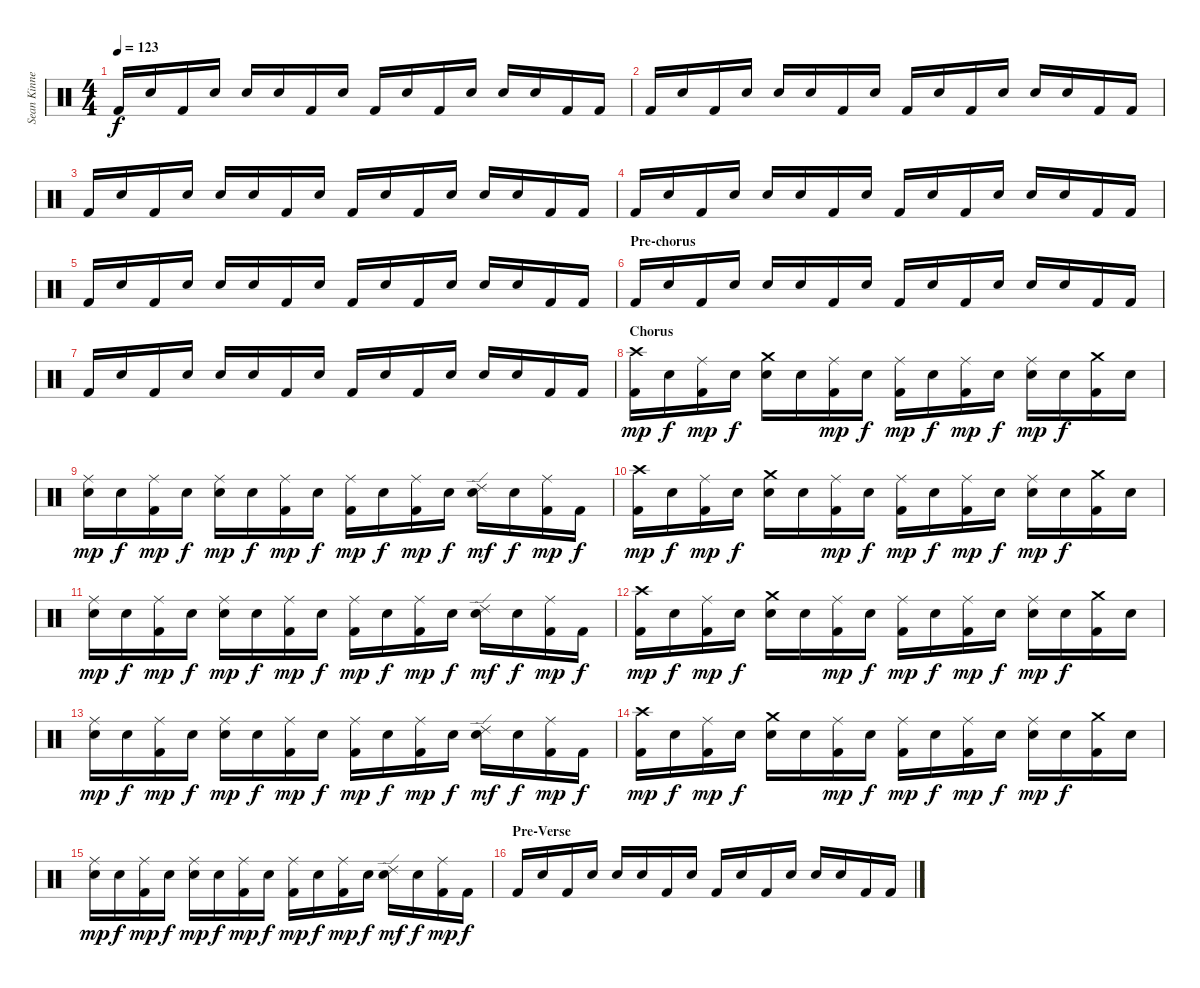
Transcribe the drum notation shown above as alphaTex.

\track ("Sean Kinney - Drums" "Sean Kinne") {instrument percussion}
\staff {score}
\articulation defaults
\ts (4 4)
\tempo 123
\clef neutral
\ks c "Kick (hit) 2".16{dy f} "Snare (hit)".16 "Kick (hit) 2".16 "Snare (hit)".16 "Electric Snare (hit)".16 "Snare (hit)".16 "Kick (hit) 2".16 "Snare (hit)".16 "Kick (hit) 2".16 "Snare (hit)".16 "Kick (hit) 2".16 "Snare (hit)".16 "Electric Snare (hit)".16 "Snare (hit)".16 "Kick (hit) 2".16 "Kick (hit) 2".16
|
"Kick (hit) 2".16 "Snare (hit)".16 "Kick (hit) 2".16 "Snare (hit)".16 "Electric Snare (hit)".16 "Snare (hit)".16 "Kick (hit) 2".16 "Snare (hit)".16 "Kick (hit) 2".16 "Snare (hit)".16 "Kick (hit) 2".16 "Snare (hit)".16 "Electric Snare (hit)".16 "Snare (hit)".16 "Kick (hit) 2".16 "Kick (hit) 2".16 |
"Kick (hit) 2".16 "Snare (hit)".16 "Kick (hit) 2".16 "Snare (hit)".16 "Electric Snare (hit)".16 "Snare (hit)".16 "Kick (hit) 2".16 "Snare (hit)".16 "Kick (hit) 2".16 "Snare (hit)".16 "Kick (hit) 2".16 "Snare (hit)".16 "Electric Snare (hit)".16 "Snare (hit)".16 "Kick (hit) 2".16 "Kick (hit) 2".16 |
"Kick (hit) 2".16 "Snare (hit)".16 "Kick (hit) 2".16 "Snare (hit)".16 "Electric Snare (hit)".16 "Snare (hit)".16 "Kick (hit) 2".16 "Snare (hit)".16 "Kick (hit) 2".16 "Snare (hit)".16 "Kick (hit) 2".16 "Snare (hit)".16 "Electric Snare (hit)".16 "Snare (hit)".16 "Kick (hit) 2".16 "Kick (hit) 2".16 |
"Kick (hit) 2".16 "Snare (hit)".16 "Kick (hit) 2".16 "Snare (hit)".16 "Electric Snare (hit)".16 "Snare (hit)".16 "Kick (hit) 2".16 "Snare (hit)".16 "Kick (hit) 2".16 "Snare (hit)".16 "Kick (hit) 2".16 "Snare (hit)".16 "Electric Snare (hit)".16 "Snare (hit)".16 "Kick (hit) 2".16 "Kick (hit) 2".16 |
\section ("" "Pre-chorus")
"Kick (hit) 2".16 "Snare (hit)".16 "Kick (hit) 2".16 "Snare (hit)".16 "Electric Snare (hit)".16 "Snare (hit)".16 "Kick (hit) 2".16 "Snare (hit)".16 "Kick (hit) 2".16 "Snare (hit)".16 "Kick (hit) 2".16 "Snare (hit)".16 "Electric Snare (hit)".16 "Snare (hit)".16 "Kick (hit) 2".16 "Kick (hit) 2".16 |
"Kick (hit) 2".16 "Snare (hit)".16 "Kick (hit) 2".16 "Snare (hit)".16 "Electric Snare (hit)".16 "Snare (hit)".16 "Kick (hit) 2".16 "Snare (hit)".16 "Kick (hit) 2".16 "Snare (hit)".16 "Kick (hit) 2".16 "Snare (hit)".16 "Electric Snare (hit)".16 "Snare (hit)".16 "Kick (hit) 2".16 "Kick (hit) 2".16 |
\section ("" "Chorus")
("Crash high (hit)" "Kick (hit) 2").16{dy mp volume 16 balance 8} "Snare (hit)".16{dy f} ("Ride (middle)" "Kick (hit) 2").16{dy mp} "Snare (hit)".16{dy f} ("Crash medium (hit)" "Electric Snare (hit)").16 "Snare (hit)".16 ("Ride (middle)" "Kick (hit) 2").16{dy mp} "Snare (hit)".16{dy f} ("Ride (middle)" "Kick (hit) 2").16{dy mp} "Snare (hit)".16{dy f} ("Ride (middle)" "Kick (hit) 2").16{dy mp} "Snare (hit)".16{dy f} ("Ride (middle)" "Electric Snare (hit)").16{dy mp} "Snare (hit)".16{dy f} ("Crash medium (hit)" "Kick (hit) 2").16 "Snare (hit)".16 |
("Ride (middle)" "Snare (hit)").16{dy mp} "Snare (hit)".16{dy f} ("Ride (middle)" "Kick (hit) 2").16{dy mp} "Snare (hit)".16{dy f} ("Ride (middle)" "Electric Snare (hit)").16{dy mp} "Snare (hit)".16{dy f} ("Ride (middle)" "Kick (hit) 2").16{dy mp} "Snare (hit)".16{dy f} ("Ride (middle)" "Kick (hit) 2").16{dy mp} "Snare (hit)".16{dy f} ("Ride (middle)" "Kick (hit) 2").16{dy mp} "Snare (hit)".16{dy f} ("Ride (edge) 2" "Electric Snare (hit)").16{dy mf} "Snare (hit)".16{dy f} ("Ride (middle)" "Kick (hit) 2").16{dy mp} "Kick (hit) 2".16{dy f} |
("Crash high (hit)" "Kick (hit) 2").16{dy mp} "Snare (hit)".16{dy f} ("Ride (middle)" "Kick (hit) 2").16{dy mp} "Snare (hit)".16{dy f} ("Crash medium (hit)" "Electric Snare (hit)").16 "Snare (hit)".16 ("Ride (middle)" "Kick (hit) 2").16{dy mp} "Snare (hit)".16{dy f} ("Ride (middle)" "Kick (hit) 2").16{dy mp} "Snare (hit)".16{dy f} ("Ride (middle)" "Kick (hit) 2").16{dy mp} "Snare (hit)".16{dy f} ("Ride (middle)" "Electric Snare (hit)").16{dy mp} "Snare (hit)".16{dy f} ("Crash medium (hit)" "Kick (hit) 2").16 "Snare (hit)".16 |
("Ride (middle)" "Snare (hit)").16{dy mp} "Snare (hit)".16{dy f} ("Ride (middle)" "Kick (hit) 2").16{dy mp} "Snare (hit)".16{dy f} ("Ride (middle)" "Electric Snare (hit)").16{dy mp} "Snare (hit)".16{dy f} ("Ride (middle)" "Kick (hit) 2").16{dy mp} "Snare (hit)".16{dy f} ("Ride (middle)" "Kick (hit) 2").16{dy mp} "Snare (hit)".16{dy f} ("Ride (middle)" "Kick (hit) 2").16{dy mp} "Snare (hit)".16{dy f} ("Ride (edge) 2" "Electric Snare (hit)").16{dy mf} "Snare (hit)".16{dy f} ("Ride (middle)" "Kick (hit) 2").16{dy mp} "Kick (hit) 2".16{dy f} |
("Crash high (hit)" "Kick (hit) 2").16{dy mp} "Snare (hit)".16{dy f} ("Ride (middle)" "Kick (hit) 2").16{dy mp} "Snare (hit)".16{dy f} ("Crash medium (hit)" "Electric Snare (hit)").16 "Snare (hit)".16 ("Ride (middle)" "Kick (hit) 2").16{dy mp} "Snare (hit)".16{dy f} ("Ride (middle)" "Kick (hit) 2").16{dy mp} "Snare (hit)".16{dy f} ("Ride (middle)" "Kick (hit) 2").16{dy mp} "Snare (hit)".16{dy f} ("Ride (middle)" "Electric Snare (hit)").16{dy mp} "Snare (hit)".16{dy f} ("Crash medium (hit)" "Kick (hit) 2").16 "Snare (hit)".16 |
("Ride (middle)" "Snare (hit)").16{dy mp} "Snare (hit)".16{dy f} ("Ride (middle)" "Kick (hit) 2").16{dy mp} "Snare (hit)".16{dy f} ("Ride (middle)" "Electric Snare (hit)").16{dy mp} "Snare (hit)".16{dy f} ("Ride (middle)" "Kick (hit) 2").16{dy mp} "Snare (hit)".16{dy f} ("Ride (middle)" "Kick (hit) 2").16{dy mp} "Snare (hit)".16{dy f} ("Ride (middle)" "Kick (hit) 2").16{dy mp} "Snare (hit)".16{dy f} ("Ride (edge) 2" "Electric Snare (hit)").16{dy mf} "Snare (hit)".16{dy f} ("Ride (middle)" "Kick (hit) 2").16{dy mp} "Kick (hit) 2".16{dy f} |
("Crash high (hit)" "Kick (hit) 2").16{dy mp} "Snare (hit)".16{dy f} ("Ride (middle)" "Kick (hit) 2").16{dy mp} "Snare (hit)".16{dy f} ("Crash medium (hit)" "Electric Snare (hit)").16 "Snare (hit)".16 ("Ride (middle)" "Kick (hit) 2").16{dy mp} "Snare (hit)".16{dy f} ("Ride (middle)" "Kick (hit) 2").16{dy mp} "Snare (hit)".16{dy f} ("Ride (middle)" "Kick (hit) 2").16{dy mp} "Snare (hit)".16{dy f} ("Ride (middle)" "Electric Snare (hit)").16{dy mp} "Snare (hit)".16{dy f} ("Crash medium (hit)" "Kick (hit) 2").16 "Snare (hit)".16 |
("Ride (middle)" "Snare (hit)").16{dy mp} "Snare (hit)".16{dy f} ("Ride (middle)" "Kick (hit) 2").16{dy mp} "Snare (hit)".16{dy f} ("Ride (middle)" "Electric Snare (hit)").16{dy mp} "Snare (hit)".16{dy f} ("Ride (middle)" "Kick (hit) 2").16{dy mp} "Snare (hit)".16{dy f} ("Ride (middle)" "Kick (hit) 2").16{dy mp} "Snare (hit)".16{dy f} ("Ride (middle)" "Kick (hit) 2").16{dy mp} "Snare (hit)".16{dy f} ("Ride (edge) 2" "Electric Snare (hit)").16{dy mf} "Snare (hit)".16{dy f} ("Ride (middle)" "Kick (hit) 2").16{dy mp} "Kick (hit) 2".16{dy f} |
\section ("" "Pre-Verse")
"Kick (hit) 2".16{volume 16 balance 8} "Snare (hit)".16 "Kick (hit) 2".16 "Snare (hit)".16 "Electric Snare (hit)".16 "Snare (hit)".16 "Kick (hit) 2".16 "Snare (hit)".16 "Kick (hit) 2".16 "Snare (hit)".16 "Kick (hit) 2".16 "Snare (hit)".16 "Electric Snare (hit)".16 "Snare (hit)".16 "Kick (hit) 2".16 "Kick (hit) 2".16
